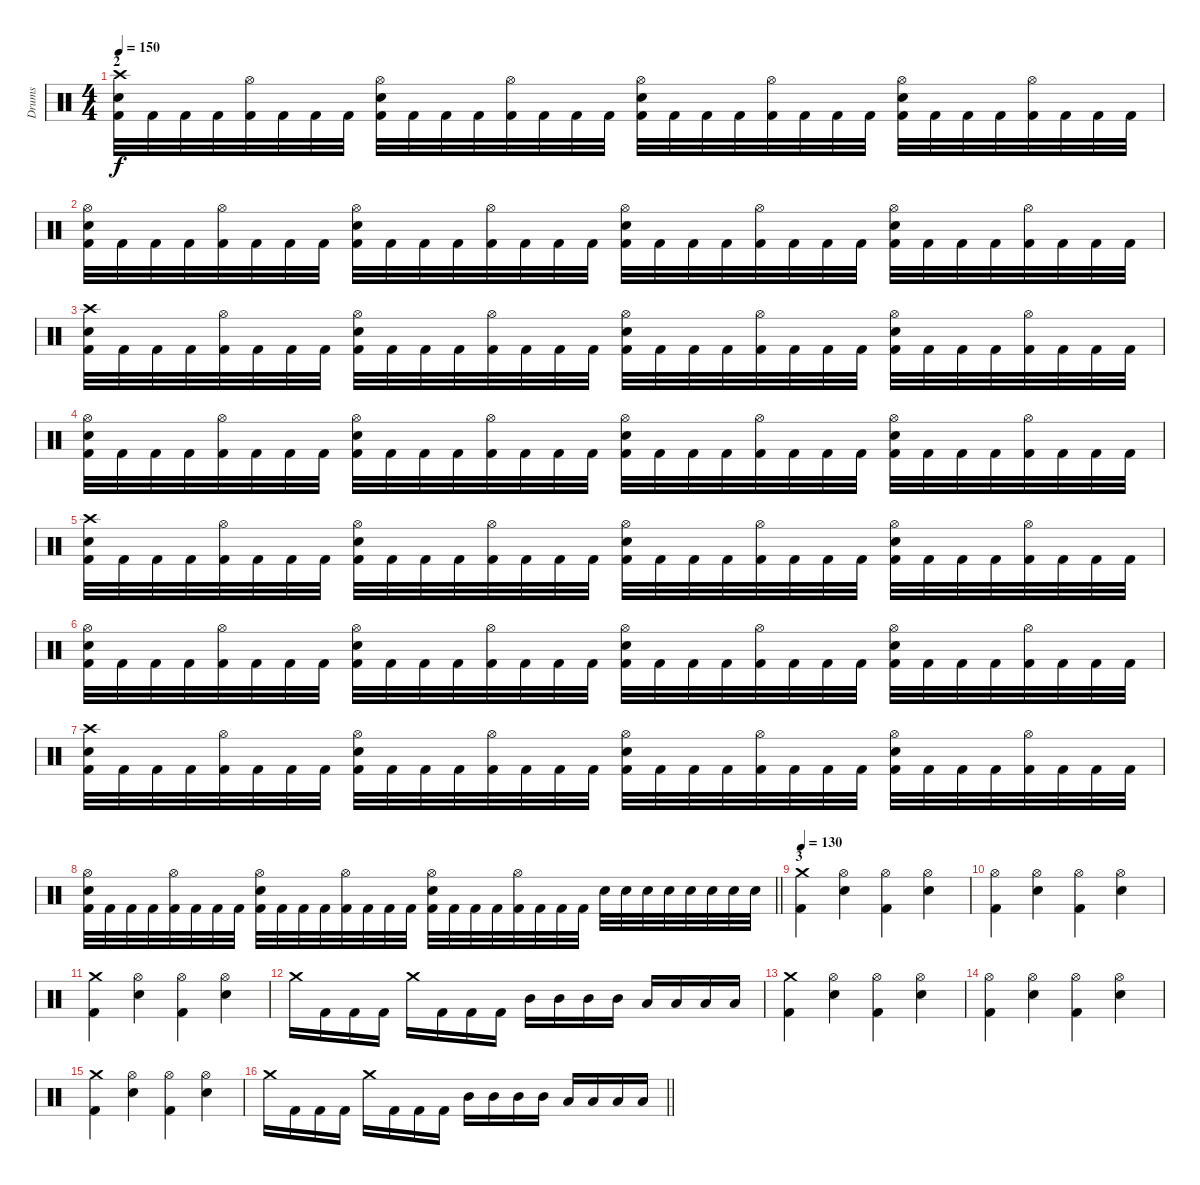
\track ("Drums" "Drums") {instrument percussion}
\staff {score}
\articulation defaults
\ts (4 4)
\section ("" "2")
\tempo 150
\clef neutral
\ks c
("Crash high (hit)" "Snare (hit) 2" "Kick (hit) 2").32{dy f} "Kick (hit) 2".32 "Kick (hit) 2".32 "Kick (hit) 2".32 ("Hi-Hat (open)" "Kick (hit) 2").32 "Kick (hit) 2".32 "Kick (hit) 2".32 "Kick (hit) 2".32 ("Hi-Hat (open)" "Snare (hit) 2" "Kick (hit) 2").32 "Kick (hit) 2".32 "Kick (hit) 2".32 "Kick (hit) 2".32 ("Hi-Hat (open)" "Kick (hit) 2").32 "Kick (hit) 2".32 "Kick (hit) 2".32 "Kick (hit) 2".32 ("Hi-Hat (open)" "Snare (hit) 2" "Kick (hit) 2").32 "Kick (hit) 2".32 "Kick (hit) 2".32 "Kick (hit) 2".32 ("Hi-Hat (open)" "Kick (hit) 2").32 "Kick (hit) 2".32 "Kick (hit) 2".32 "Kick (hit) 2".32 ("Hi-Hat (open)" "Snare (hit) 2" "Kick (hit) 2").32 "Kick (hit) 2".32 "Kick (hit) 2".32 "Kick (hit) 2".32 ("Hi-Hat (open)" "Kick (hit) 2").32 "Kick (hit) 2".32 "Kick (hit) 2".32 "Kick (hit) 2".32 |
("Hi-Hat (open)" "Snare (hit) 2" "Kick (hit) 2").32 "Kick (hit) 2".32 "Kick (hit) 2".32 "Kick (hit) 2".32 ("Hi-Hat (open)" "Kick (hit) 2").32 "Kick (hit) 2".32 "Kick (hit) 2".32 "Kick (hit) 2".32 ("Hi-Hat (open)" "Snare (hit) 2" "Kick (hit) 2").32 "Kick (hit) 2".32 "Kick (hit) 2".32 "Kick (hit) 2".32 ("Hi-Hat (open)" "Kick (hit) 2").32 "Kick (hit) 2".32 "Kick (hit) 2".32 "Kick (hit) 2".32 ("Hi-Hat (open)" "Snare (hit) 2" "Kick (hit) 2").32 "Kick (hit) 2".32 "Kick (hit) 2".32 "Kick (hit) 2".32 ("Hi-Hat (open)" "Kick (hit) 2").32 "Kick (hit) 2".32 "Kick (hit) 2".32 "Kick (hit) 2".32 ("Hi-Hat (open)" "Snare (hit) 2" "Kick (hit) 2").32 "Kick (hit) 2".32 "Kick (hit) 2".32 "Kick (hit) 2".32 ("Hi-Hat (open)" "Kick (hit) 2").32 "Kick (hit) 2".32 "Kick (hit) 2".32 "Kick (hit) 2".32 |
("Crash high (hit)" "Snare (hit) 2" "Kick (hit) 2").32 "Kick (hit) 2".32 "Kick (hit) 2".32 "Kick (hit) 2".32 ("Hi-Hat (open)" "Kick (hit) 2").32 "Kick (hit) 2".32 "Kick (hit) 2".32 "Kick (hit) 2".32 ("Hi-Hat (open)" "Snare (hit) 2" "Kick (hit) 2").32 "Kick (hit) 2".32 "Kick (hit) 2".32 "Kick (hit) 2".32 ("Hi-Hat (open)" "Kick (hit) 2").32 "Kick (hit) 2".32 "Kick (hit) 2".32 "Kick (hit) 2".32 ("Hi-Hat (open)" "Snare (hit) 2" "Kick (hit) 2").32 "Kick (hit) 2".32 "Kick (hit) 2".32 "Kick (hit) 2".32 ("Hi-Hat (open)" "Kick (hit) 2").32 "Kick (hit) 2".32 "Kick (hit) 2".32 "Kick (hit) 2".32 ("Hi-Hat (open)" "Snare (hit) 2" "Kick (hit) 2").32 "Kick (hit) 2".32 "Kick (hit) 2".32 "Kick (hit) 2".32 ("Hi-Hat (open)" "Kick (hit) 2").32 "Kick (hit) 2".32 "Kick (hit) 2".32 "Kick (hit) 2".32 |
("Hi-Hat (open)" "Snare (hit) 2" "Kick (hit) 2").32 "Kick (hit) 2".32 "Kick (hit) 2".32 "Kick (hit) 2".32 ("Hi-Hat (open)" "Kick (hit) 2").32 "Kick (hit) 2".32 "Kick (hit) 2".32 "Kick (hit) 2".32 ("Hi-Hat (open)" "Snare (hit) 2" "Kick (hit) 2").32 "Kick (hit) 2".32 "Kick (hit) 2".32 "Kick (hit) 2".32 ("Hi-Hat (open)" "Kick (hit) 2").32 "Kick (hit) 2".32 "Kick (hit) 2".32 "Kick (hit) 2".32 ("Hi-Hat (open)" "Snare (hit) 2" "Kick (hit) 2").32 "Kick (hit) 2".32 "Kick (hit) 2".32 "Kick (hit) 2".32 ("Hi-Hat (open)" "Kick (hit) 2").32 "Kick (hit) 2".32 "Kick (hit) 2".32 "Kick (hit) 2".32 ("Hi-Hat (open)" "Snare (hit) 2" "Kick (hit) 2").32 "Kick (hit) 2".32 "Kick (hit) 2".32 "Kick (hit) 2".32 ("Hi-Hat (open)" "Kick (hit) 2").32 "Kick (hit) 2".32 "Kick (hit) 2".32 "Kick (hit) 2".32 |
("Crash high (hit)" "Snare (hit) 2" "Kick (hit) 2").32 "Kick (hit) 2".32 "Kick (hit) 2".32 "Kick (hit) 2".32 ("Hi-Hat (open)" "Kick (hit) 2").32 "Kick (hit) 2".32 "Kick (hit) 2".32 "Kick (hit) 2".32 ("Hi-Hat (open)" "Snare (hit) 2" "Kick (hit) 2").32 "Kick (hit) 2".32 "Kick (hit) 2".32 "Kick (hit) 2".32 ("Hi-Hat (open)" "Kick (hit) 2").32 "Kick (hit) 2".32 "Kick (hit) 2".32 "Kick (hit) 2".32 ("Hi-Hat (open)" "Snare (hit) 2" "Kick (hit) 2").32 "Kick (hit) 2".32 "Kick (hit) 2".32 "Kick (hit) 2".32 ("Hi-Hat (open)" "Kick (hit) 2").32 "Kick (hit) 2".32 "Kick (hit) 2".32 "Kick (hit) 2".32 ("Hi-Hat (open)" "Snare (hit) 2" "Kick (hit) 2").32 "Kick (hit) 2".32 "Kick (hit) 2".32 "Kick (hit) 2".32 ("Hi-Hat (open)" "Kick (hit) 2").32 "Kick (hit) 2".32 "Kick (hit) 2".32 "Kick (hit) 2".32 |
("Hi-Hat (open)" "Snare (hit) 2" "Kick (hit) 2").32 "Kick (hit) 2".32 "Kick (hit) 2".32 "Kick (hit) 2".32 ("Hi-Hat (open)" "Kick (hit) 2").32 "Kick (hit) 2".32 "Kick (hit) 2".32 "Kick (hit) 2".32 ("Hi-Hat (open)" "Snare (hit) 2" "Kick (hit) 2").32 "Kick (hit) 2".32 "Kick (hit) 2".32 "Kick (hit) 2".32 ("Hi-Hat (open)" "Kick (hit) 2").32 "Kick (hit) 2".32 "Kick (hit) 2".32 "Kick (hit) 2".32 ("Hi-Hat (open)" "Snare (hit) 2" "Kick (hit) 2").32 "Kick (hit) 2".32 "Kick (hit) 2".32 "Kick (hit) 2".32 ("Hi-Hat (open)" "Kick (hit) 2").32 "Kick (hit) 2".32 "Kick (hit) 2".32 "Kick (hit) 2".32 ("Hi-Hat (open)" "Snare (hit) 2" "Kick (hit) 2").32 "Kick (hit) 2".32 "Kick (hit) 2".32 "Kick (hit) 2".32 ("Hi-Hat (open)" "Kick (hit) 2").32 "Kick (hit) 2".32 "Kick (hit) 2".32 "Kick (hit) 2".32 |
("Crash high (hit)" "Snare (hit) 2" "Kick (hit) 2").32 "Kick (hit) 2".32 "Kick (hit) 2".32 "Kick (hit) 2".32 ("Hi-Hat (open)" "Kick (hit) 2").32 "Kick (hit) 2".32 "Kick (hit) 2".32 "Kick (hit) 2".32 ("Hi-Hat (open)" "Snare (hit) 2" "Kick (hit) 2").32 "Kick (hit) 2".32 "Kick (hit) 2".32 "Kick (hit) 2".32 ("Hi-Hat (open)" "Kick (hit) 2").32 "Kick (hit) 2".32 "Kick (hit) 2".32 "Kick (hit) 2".32 ("Hi-Hat (open)" "Snare (hit) 2" "Kick (hit) 2").32 "Kick (hit) 2".32 "Kick (hit) 2".32 "Kick (hit) 2".32 ("Hi-Hat (open)" "Kick (hit) 2").32 "Kick (hit) 2".32 "Kick (hit) 2".32 "Kick (hit) 2".32 ("Hi-Hat (open)" "Snare (hit) 2" "Kick (hit) 2").32 "Kick (hit) 2".32 "Kick (hit) 2".32 "Kick (hit) 2".32 ("Hi-Hat (open)" "Kick (hit) 2").32 "Kick (hit) 2".32 "Kick (hit) 2".32 "Kick (hit) 2".32 |
\barLineRight lightlight
("Hi-Hat (open)" "Snare (hit) 2" "Kick (hit) 2").32 "Kick (hit) 2".32 "Kick (hit) 2".32 "Kick (hit) 2".32 ("Hi-Hat (open)" "Kick (hit) 2").32 "Kick (hit) 2".32 "Kick (hit) 2".32 "Kick (hit) 2".32 ("Hi-Hat (open)" "Snare (hit) 2" "Kick (hit) 2").32 "Kick (hit) 2".32 "Kick (hit) 2".32 "Kick (hit) 2".32 ("Hi-Hat (open)" "Kick (hit) 2").32 "Kick (hit) 2".32 "Kick (hit) 2".32 "Kick (hit) 2".32 ("Hi-Hat (open)" "Snare (hit) 2" "Kick (hit) 2").32 "Kick (hit) 2".32 "Kick (hit) 2".32 "Kick (hit) 2".32 ("Hi-Hat (open)" "Kick (hit) 2").32 "Kick (hit) 2".32 "Kick (hit) 2".32 "Kick (hit) 2".32 "Snare (hit) 2".32 "Snare (hit) 2".32 "Snare (hit) 2".32 "Snare (hit) 2".32 "Snare (hit) 2".32 "Snare (hit) 2".32 "Snare (hit) 2".32 "Snare (hit) 2".32 |
\section ("" "3")
\tempo 130
("Crash medium (hit)" "Kick (hit) 2").4 ("Hi-Hat (open)" "Snare (hit) 2").4 ("Hi-Hat (open)" "Kick (hit) 2").4 ("Hi-Hat (open)" "Snare (hit) 2").4 |
("Hi-Hat (open)" "Kick (hit) 2").4 ("Hi-Hat (open)" "Snare (hit) 2").4 ("Hi-Hat (open)" "Kick (hit) 2").4 ("Hi-Hat (open)" "Snare (hit) 2").4 |
("Crash medium (hit)" "Kick (hit) 2").4 ("Hi-Hat (open)" "Snare (hit) 2").4 ("Hi-Hat (open)" "Kick (hit) 2").4 ("Hi-Hat (open)" "Snare (hit) 2").4 |
"Crash medium (hit)".16 "Kick (hit) 2".16 "Kick (hit) 2".16 "Kick (hit) 2".16 "Crash medium (hit)".16 "Kick (hit) 2".16 "Kick (hit) 2".16 "Kick (hit) 2".16 "Mid Tom (hit)".16 "Mid Tom (hit)".16 "Mid Tom (hit)".16 "Mid Tom (hit)".16 "Low Tom (hit)".16 "Low Tom (hit)".16 "Low Floor Tom (hit)".16 "Low Floor Tom (hit)".16 |
("Crash medium (hit)" "Kick (hit) 2").4 ("Hi-Hat (open)" "Snare (hit) 2").4 ("Hi-Hat (open)" "Kick (hit) 2").4 ("Hi-Hat (open)" "Snare (hit) 2").4 |
("Hi-Hat (open)" "Kick (hit) 2").4 ("Hi-Hat (open)" "Snare (hit) 2").4 ("Hi-Hat (open)" "Kick (hit) 2").4 ("Hi-Hat (open)" "Snare (hit) 2").4 |
("Crash medium (hit)" "Kick (hit) 2").4 ("Hi-Hat (open)" "Snare (hit) 2").4 ("Hi-Hat (open)" "Kick (hit) 2").4 ("Hi-Hat (open)" "Snare (hit) 2").4 |
\barLineRight lightlight "Crash medium (hit)".16 "Kick (hit) 2".16 "Kick (hit) 2".16 "Kick (hit) 2".16 "Crash medium (hit)".16 "Kick (hit) 2".16 "Kick (hit) 2".16 "Kick (hit) 2".16 "Mid Tom (hit)".16 "Mid Tom (hit)".16 "Mid Tom (hit)".16 "Mid Tom (hit)".16 "Low Tom (hit)".16 "Low Tom (hit)".16 "Low Floor Tom (hit)".16 "Low Floor Tom (hit)".16
